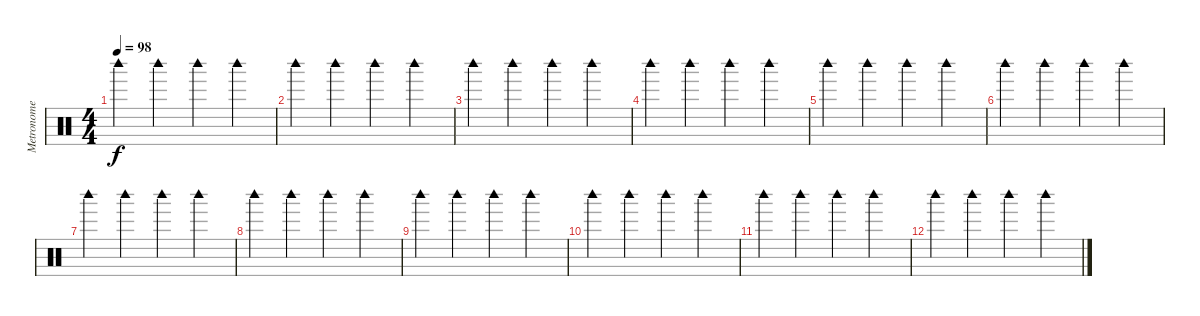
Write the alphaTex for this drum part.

\track ("Metronome" "Metronome") {instrument percussion}
\staff {score}
\articulation defaults
\ts (4 4)
\tempo 98
\clef neutral
\ks c "Woodblock high (hit)".4{dy f} "Woodblock high (hit)".4 "Woodblock high (hit)".4 "Woodblock high (hit)".4
|
"Woodblock high (hit)".4 "Woodblock high (hit)".4 "Woodblock high (hit)".4 "Woodblock high (hit)".4 |
"Woodblock high (hit)".4 "Woodblock high (hit)".4 "Woodblock high (hit)".4 "Woodblock high (hit)".4 |
"Woodblock high (hit)".4 "Woodblock high (hit)".4 "Woodblock high (hit)".4 "Woodblock high (hit)".4 |
"Woodblock high (hit)".4 "Woodblock high (hit)".4 "Woodblock high (hit)".4 "Woodblock high (hit)".4 |
"Woodblock high (hit)".4 "Woodblock high (hit)".4 "Woodblock high (hit)".4 "Woodblock high (hit)".4 |
"Woodblock high (hit)".4 "Woodblock high (hit)".4 "Woodblock high (hit)".4 "Woodblock high (hit)".4 |
"Woodblock high (hit)".4 "Woodblock high (hit)".4 "Woodblock high (hit)".4 "Woodblock high (hit)".4 |
"Woodblock high (hit)".4 "Woodblock high (hit)".4 "Woodblock high (hit)".4 "Woodblock high (hit)".4 |
"Woodblock high (hit)".4 "Woodblock high (hit)".4 "Woodblock high (hit)".4 "Woodblock high (hit)".4 |
"Woodblock high (hit)".4 "Woodblock high (hit)".4 "Woodblock high (hit)".4 "Woodblock high (hit)".4 |
"Woodblock high (hit)".4 "Woodblock high (hit)".4 "Woodblock high (hit)".4 "Woodblock high (hit)".4
